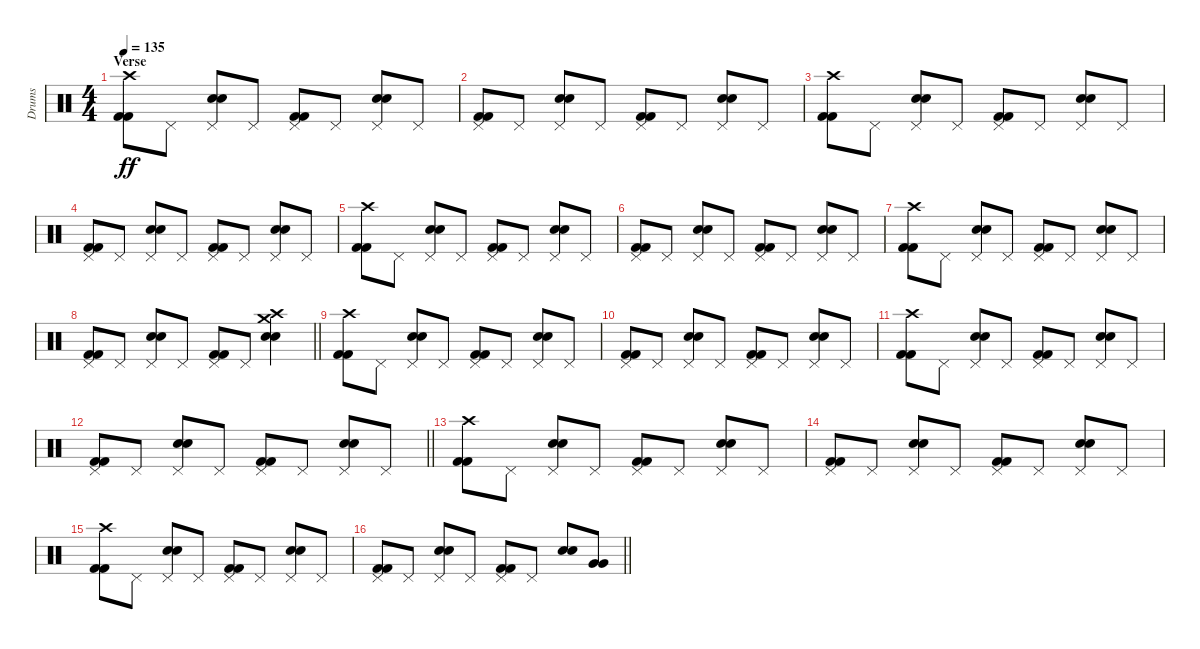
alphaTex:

\track ("Drums" "Drums") {instrument percussion}
\staff {score}
\articulation defaults
\ts (4 4)
\section ("" "Verse")
\tempo 135
\clef neutral
\ks c
("Crash high (hit)" "Kick (hit) 2" "Kick (hit) 2").8{dy ff} "Pedal Hi-Hat (hit)".8 ("Pedal Hi-Hat (hit)" "Electric Snare (hit)" "Electric Snare (hit)").8 "Pedal Hi-Hat (hit)".8 ("Pedal Hi-Hat (hit)" "Kick (hit) 2" "Kick (hit) 2").8 "Pedal Hi-Hat (hit)".8 ("Pedal Hi-Hat (hit)" "Electric Snare (hit)" "Electric Snare (hit)").8 "Pedal Hi-Hat (hit)".8 |
("Pedal Hi-Hat (hit)" "Kick (hit) 2" "Kick (hit) 2").8 "Pedal Hi-Hat (hit)".8 ("Pedal Hi-Hat (hit)" "Electric Snare (hit)" "Electric Snare (hit)").8 "Pedal Hi-Hat (hit)".8 ("Pedal Hi-Hat (hit)" "Kick (hit) 2" "Kick (hit) 2").8 "Pedal Hi-Hat (hit)".8 ("Pedal Hi-Hat (hit)" "Electric Snare (hit)" "Electric Snare (hit)").8 "Pedal Hi-Hat (hit)".8 |
("Crash high (hit)" "Kick (hit) 2" "Kick (hit) 2").8 "Pedal Hi-Hat (hit)".8 ("Pedal Hi-Hat (hit)" "Electric Snare (hit)" "Electric Snare (hit)").8 "Pedal Hi-Hat (hit)".8 ("Pedal Hi-Hat (hit)" "Kick (hit) 2" "Kick (hit) 2").8 "Pedal Hi-Hat (hit)".8 ("Pedal Hi-Hat (hit)" "Electric Snare (hit)" "Electric Snare (hit)").8 "Pedal Hi-Hat (hit)".8 |
("Pedal Hi-Hat (hit)" "Kick (hit) 2" "Kick (hit) 2").8 "Pedal Hi-Hat (hit)".8 ("Pedal Hi-Hat (hit)" "Electric Snare (hit)" "Electric Snare (hit)").8 "Pedal Hi-Hat (hit)".8 ("Pedal Hi-Hat (hit)" "Kick (hit) 2" "Kick (hit) 2").8 "Pedal Hi-Hat (hit)".8 ("Pedal Hi-Hat (hit)" "Electric Snare (hit)" "Electric Snare (hit)").8 "Pedal Hi-Hat (hit)".8 |
("Crash high (hit)" "Kick (hit) 2" "Kick (hit) 2").8 "Pedal Hi-Hat (hit)".8 ("Pedal Hi-Hat (hit)" "Electric Snare (hit)" "Electric Snare (hit)").8 "Pedal Hi-Hat (hit)".8 ("Pedal Hi-Hat (hit)" "Kick (hit) 2" "Kick (hit) 2").8 "Pedal Hi-Hat (hit)".8 ("Pedal Hi-Hat (hit)" "Electric Snare (hit)" "Electric Snare (hit)").8 "Pedal Hi-Hat (hit)".8 |
("Pedal Hi-Hat (hit)" "Kick (hit) 2" "Kick (hit) 2").8 "Pedal Hi-Hat (hit)".8 ("Pedal Hi-Hat (hit)" "Electric Snare (hit)" "Electric Snare (hit)").8 "Pedal Hi-Hat (hit)".8 ("Pedal Hi-Hat (hit)" "Kick (hit) 2" "Kick (hit) 2").8 "Pedal Hi-Hat (hit)".8 ("Pedal Hi-Hat (hit)" "Electric Snare (hit)" "Electric Snare (hit)").8 "Pedal Hi-Hat (hit)".8 |
("Crash high (hit)" "Kick (hit) 2" "Kick (hit) 2").8 "Pedal Hi-Hat (hit)".8 ("Pedal Hi-Hat (hit)" "Electric Snare (hit)" "Electric Snare (hit)").8 "Pedal Hi-Hat (hit)".8 ("Pedal Hi-Hat (hit)" "Kick (hit) 2" "Kick (hit) 2").8 "Pedal Hi-Hat (hit)".8 ("Pedal Hi-Hat (hit)" "Electric Snare (hit)" "Electric Snare (hit)").8 "Pedal Hi-Hat (hit)".8 |
\barLineRight lightlight
("Pedal Hi-Hat (hit)" "Kick (hit) 2" "Kick (hit) 2").8 "Pedal Hi-Hat (hit)".8 ("Pedal Hi-Hat (hit)" "Electric Snare (hit)" "Electric Snare (hit)").8 "Pedal Hi-Hat (hit)".8 ("Pedal Hi-Hat (hit)" "Kick (hit) 2" "Kick (hit) 2").8 "Pedal Hi-Hat (hit)".8 ("Crash medium (hit)" "Crash high (hit)" "Electric Snare (hit)" "Electric Snare (hit)").4 |
("Crash high (hit)" "Kick (hit) 2" "Kick (hit) 2").8 "Pedal Hi-Hat (hit)".8 ("Pedal Hi-Hat (hit)" "Electric Snare (hit)" "Electric Snare (hit)").8 "Pedal Hi-Hat (hit)".8 ("Pedal Hi-Hat (hit)" "Kick (hit) 2" "Kick (hit) 2").8 "Pedal Hi-Hat (hit)".8 ("Pedal Hi-Hat (hit)" "Electric Snare (hit)" "Electric Snare (hit)").8 "Pedal Hi-Hat (hit)".8 |
("Pedal Hi-Hat (hit)" "Kick (hit) 2" "Kick (hit) 2").8 "Pedal Hi-Hat (hit)".8 ("Pedal Hi-Hat (hit)" "Electric Snare (hit)" "Electric Snare (hit)").8 "Pedal Hi-Hat (hit)".8 ("Pedal Hi-Hat (hit)" "Kick (hit) 2" "Kick (hit) 2").8 "Pedal Hi-Hat (hit)".8 ("Pedal Hi-Hat (hit)" "Electric Snare (hit)" "Electric Snare (hit)").8 "Pedal Hi-Hat (hit)".8 |
("Crash high (hit)" "Kick (hit) 2" "Kick (hit) 2").8 "Pedal Hi-Hat (hit)".8 ("Pedal Hi-Hat (hit)" "Electric Snare (hit)" "Electric Snare (hit)").8 "Pedal Hi-Hat (hit)".8 ("Pedal Hi-Hat (hit)" "Kick (hit) 2" "Kick (hit) 2").8 "Pedal Hi-Hat (hit)".8 ("Pedal Hi-Hat (hit)" "Electric Snare (hit)" "Electric Snare (hit)").8 "Pedal Hi-Hat (hit)".8 |
\barLineRight lightlight
("Pedal Hi-Hat (hit)" "Kick (hit) 2" "Kick (hit) 2").8 "Pedal Hi-Hat (hit)".8 ("Pedal Hi-Hat (hit)" "Electric Snare (hit)" "Electric Snare (hit)").8 "Pedal Hi-Hat (hit)".8 ("Pedal Hi-Hat (hit)" "Kick (hit) 2" "Kick (hit) 2").8 "Pedal Hi-Hat (hit)".8 ("Pedal Hi-Hat (hit)" "Electric Snare (hit)" "Electric Snare (hit)").8 "Pedal Hi-Hat (hit)".8 |
("Crash high (hit)" "Kick (hit) 2" "Kick (hit) 2").8 "Pedal Hi-Hat (hit)".8 ("Pedal Hi-Hat (hit)" "Electric Snare (hit)" "Electric Snare (hit)").8 "Pedal Hi-Hat (hit)".8 ("Pedal Hi-Hat (hit)" "Kick (hit) 2" "Kick (hit) 2").8 "Pedal Hi-Hat (hit)".8 ("Pedal Hi-Hat (hit)" "Electric Snare (hit)" "Electric Snare (hit)").8 "Pedal Hi-Hat (hit)".8 |
("Pedal Hi-Hat (hit)" "Kick (hit) 2" "Kick (hit) 2").8 "Pedal Hi-Hat (hit)".8 ("Pedal Hi-Hat (hit)" "Electric Snare (hit)" "Electric Snare (hit)").8 "Pedal Hi-Hat (hit)".8 ("Pedal Hi-Hat (hit)" "Kick (hit) 2" "Kick (hit) 2").8 "Pedal Hi-Hat (hit)".8 ("Pedal Hi-Hat (hit)" "Electric Snare (hit)" "Electric Snare (hit)").8 "Pedal Hi-Hat (hit)".8 |
("Crash high (hit)" "Kick (hit) 2" "Kick (hit) 2").8 "Pedal Hi-Hat (hit)".8 ("Pedal Hi-Hat (hit)" "Electric Snare (hit)" "Electric Snare (hit)").8 "Pedal Hi-Hat (hit)".8 ("Pedal Hi-Hat (hit)" "Kick (hit) 2" "Kick (hit) 2").8 "Pedal Hi-Hat (hit)".8 ("Pedal Hi-Hat (hit)" "Electric Snare (hit)" "Electric Snare (hit)").8 "Pedal Hi-Hat (hit)".8 |
\barLineRight lightlight
("Pedal Hi-Hat (hit)" "Kick (hit) 2" "Kick (hit) 2").8 "Pedal Hi-Hat (hit)".8 ("Pedal Hi-Hat (hit)" "Electric Snare (hit)" "Electric Snare (hit)").8 "Pedal Hi-Hat (hit)".8 ("Pedal Hi-Hat (hit)" "Kick (hit) 2" "Kick (hit) 2").8 "Pedal Hi-Hat (hit)".8 ("Electric Snare (hit)" "Electric Snare (hit)").8 ("Very Low Tom (hit)" "Very Low Tom (hit)").8
